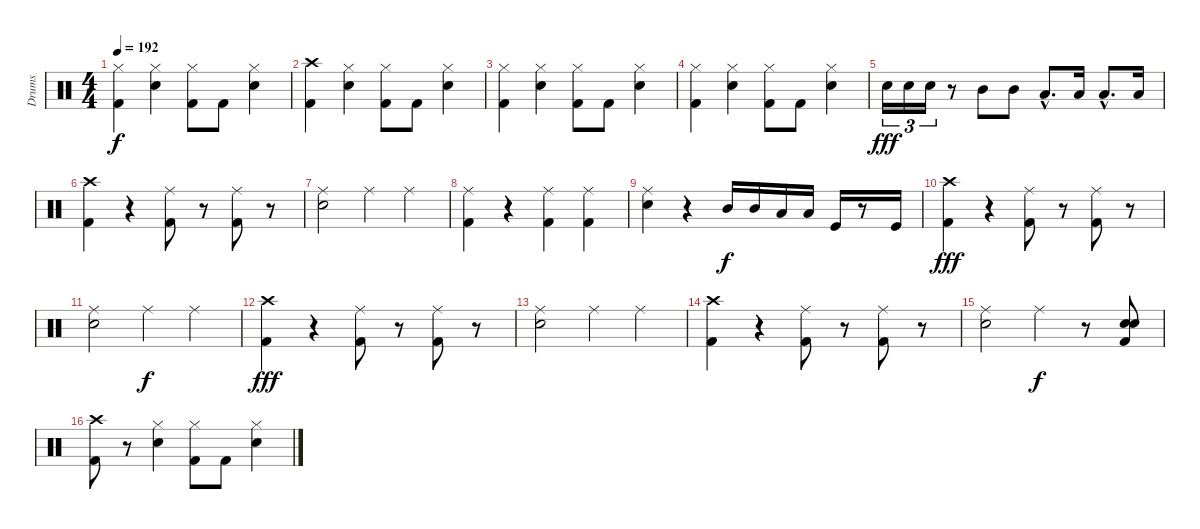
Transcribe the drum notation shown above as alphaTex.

\track ("Drums" "Drums") {instrument percussion}
\staff {score}
\articulation defaults
\ts (4 4)
\tempo 192
\clef neutral
\ks c
("Kick (hit) 2" "Hi-Hat (closed)").4{dy f} ("Electric Snare (hit)" "Hi-Hat (closed)").4 ("Kick (hit) 2" "Hi-Hat (closed)").8 "Kick (hit) 2".8 ("Electric Snare (hit)" "Hi-Hat (closed)").4 |
("Kick (hit) 2" "Crash high (hit)").4 ("Electric Snare (hit)" "Hi-Hat (closed)").4 ("Kick (hit) 2" "Hi-Hat (closed)").8 "Kick (hit) 2".8 ("Electric Snare (hit)" "Hi-Hat (closed)").4 |
("Kick (hit) 2" "Hi-Hat (closed)").4 ("Electric Snare (hit)" "Hi-Hat (closed)").4 ("Kick (hit) 2" "Hi-Hat (closed)").8 "Kick (hit) 2".8 ("Electric Snare (hit)" "Hi-Hat (closed)").4 |
("Kick (hit) 2" "Hi-Hat (closed)").4 ("Electric Snare (hit)" "Hi-Hat (closed)").4 ("Kick (hit) 2" "Hi-Hat (closed)").8 "Kick (hit) 2".8 ("Electric Snare (hit)" "Hi-Hat (closed)").4 |
"Electric Snare (hit)".16{tu (3 2) dy fff} "Electric Snare (hit)".16{tu (3 2)} "Electric Snare (hit)".16{tu (3 2)} r.8 "Mid Tom (hit)".8 "Mid Tom (hit)".8 "Low Tom (hit)"{hac}.8{d} "Low Tom (hit)".16 "Low Floor Tom (hit)"{hac}.8{d} "Low Floor Tom (hit)".16 |
("Kick (hit) 2" "Crash high (hit)").4 r.4 ("Kick (hit) 2" "Ride (middle)").8 r.8 ("Kick (hit) 2" "Ride (middle)").8 r.8 |
("Electric Snare (hit)" "Ride (middle)").2 "Ride (middle)".4 "Ride (middle)".4 |
("Kick (hit) 2" "Ride (middle)").4 r.4 ("Kick (hit) 2" "Ride (middle)").4 ("Kick (hit) 2" "Ride (middle)").4 |
("Electric Snare (hit)" "Ride (middle)").4 r.4 "Mid Tom (hit)".16{dy f} "Mid Tom (hit)".16 "Low Tom (hit)".16 "Low Tom (hit)".16 "Kick (hit)".16 r.8 "Kick (hit)".16 |
("Kick (hit) 2" "Crash high (hit)").4{dy fff} r.4 ("Kick (hit) 2" "Ride (middle)").8 r.8 ("Kick (hit) 2" "Ride (middle)").8 r.8 |
("Electric Snare (hit)" "Ride (middle)").2 "Ride (middle)".4{dy f} "Ride (middle)".4 |
("Kick (hit) 2" "Crash high (hit)").4{dy fff} r.4 ("Kick (hit) 2" "Ride (middle)").8 r.8 ("Kick (hit) 2" "Ride (middle)").8 r.8 |
("Electric Snare (hit)" "Ride (middle)").2 "Ride (middle)".4 "Ride (middle)".4 |
("Kick (hit) 2" "Crash high (hit)").4 r.4 ("Kick (hit) 2" "Ride (middle)").8 r.8 ("Kick (hit) 2" "Ride (middle)").8 r.8 |
("Electric Snare (hit)" "Ride (middle)").2 "Ride (middle)".4{dy f} r.8 ("Electric Snare (hit)" "Electric Snare (hit)" "Kick (hit) 2").8 |
("Kick (hit) 2" "Crash high (hit)").8 r.8 ("Electric Snare (hit)" "Hi-Hat (closed)").4 ("Kick (hit) 2" "Hi-Hat (closed)").8 "Kick (hit) 2".8 ("Electric Snare (hit)" "Hi-Hat (closed)").4
